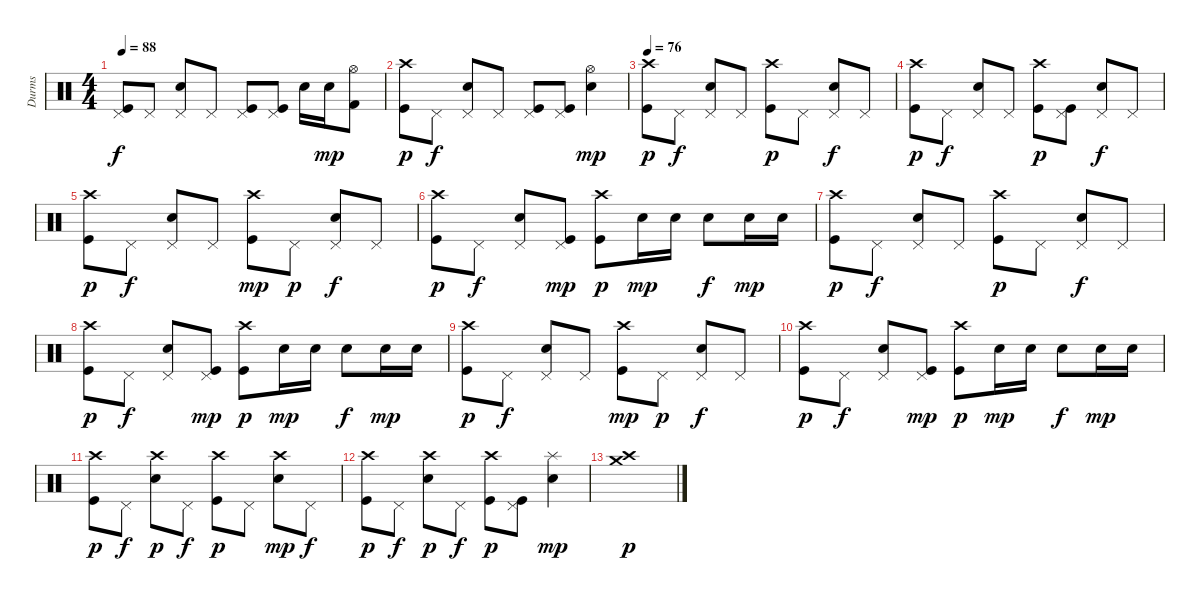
\track ("Durms" "Durms") {instrument percussion}
\staff {score}
\articulation defaults
\ts (4 4)
\tempo 88
\clef neutral
\ks c
("Pedal Hi-Hat (hit)" "Kick (hit)").8{dy f} "Pedal Hi-Hat (hit)".8 ("Pedal Hi-Hat (hit)" "Snare (hit) 2").8 "Pedal Hi-Hat (hit)".8 ("Pedal Hi-Hat (hit)" "Kick (hit)").8 ("Pedal Hi-Hat (hit)" "Kick (hit)").8 "Snare (hit) 2".16 "Snare (hit) 2".16{dy mp} ("Hi-Hat (open)" "Kick (hit) 2").8 |
("Crash high (hit)" "Kick (hit)").8{dy p} "Pedal Hi-Hat (hit)".8{dy f} ("Pedal Hi-Hat (hit)" "Snare (hit) 2").8 "Pedal Hi-Hat (hit)".8 ("Pedal Hi-Hat (hit)" "Kick (hit)").8 ("Pedal Hi-Hat (hit)" "Kick (hit)").8 ("Hi-Hat (open)" "Snare (hit) 2").4{dy mp} |
\tempo 76
("Crash high (hit)" "Kick (hit)").8{dy p} "Pedal Hi-Hat (hit)".8{dy f} ("Pedal Hi-Hat (hit)" "Snare (hit) 2").8 "Pedal Hi-Hat (hit)".8 ("Crash high (hit)" "Kick (hit)").8{dy p} "Pedal Hi-Hat (hit)".8 ("Pedal Hi-Hat (hit)" "Snare (hit) 2").8{dy f} "Pedal Hi-Hat (hit)".8 |
("Crash high (hit)" "Kick (hit)").8{dy p} "Pedal Hi-Hat (hit)".8{dy f} ("Pedal Hi-Hat (hit)" "Snare (hit) 2").8 "Pedal Hi-Hat (hit)".8 ("Crash high (hit)" "Kick (hit)").8{dy p} ("Pedal Hi-Hat (hit)" "Kick (hit)").8 ("Pedal Hi-Hat (hit)" "Snare (hit) 2").8{dy f} "Pedal Hi-Hat (hit)".8 |
("Crash high (hit)" "Kick (hit)").8{dy p} "Pedal Hi-Hat (hit)".8{dy f} ("Pedal Hi-Hat (hit)" "Snare (hit) 2").8 "Pedal Hi-Hat (hit)".8 ("Crash high (hit)" "Kick (hit)").8{dy mp} "Pedal Hi-Hat (hit)".8{dy p} ("Pedal Hi-Hat (hit)" "Snare (hit) 2").8{dy f} "Pedal Hi-Hat (hit)".8 |
("Crash high (hit)" "Kick (hit)").8{dy p} "Pedal Hi-Hat (hit)".8{dy f} ("Pedal Hi-Hat (hit)" "Snare (hit) 2").8 ("Pedal Hi-Hat (hit)" "Kick (hit)").8{dy mp} ("Crash high (hit)" "Kick (hit)").8{dy p} "Snare (hit) 2".16{dy mp} "Snare (hit) 2".16 "Snare (hit) 2".8{dy f} "Snare (hit) 2".16{dy mp} "Snare (hit) 2".16 |
("Crash high (hit)" "Kick (hit)").8{dy p} "Pedal Hi-Hat (hit)".8{dy f} ("Pedal Hi-Hat (hit)" "Snare (hit) 2").8 "Pedal Hi-Hat (hit)".8 ("Crash high (hit)" "Kick (hit)").8{dy p} "Pedal Hi-Hat (hit)".8 ("Pedal Hi-Hat (hit)" "Snare (hit) 2").8{dy f} "Pedal Hi-Hat (hit)".8 |
("Crash high (hit)" "Kick (hit)").8{dy p} "Pedal Hi-Hat (hit)".8{dy f} ("Pedal Hi-Hat (hit)" "Snare (hit) 2").8 ("Pedal Hi-Hat (hit)" "Kick (hit)").8{dy mp} ("Crash high (hit)" "Kick (hit)").8{dy p} "Snare (hit) 2".16{dy mp} "Snare (hit) 2".16 "Snare (hit) 2".8{dy f} "Snare (hit) 2".16{dy mp} "Snare (hit) 2".16 |
("Crash high (hit)" "Kick (hit)").8{dy p} "Pedal Hi-Hat (hit)".8{dy f} ("Pedal Hi-Hat (hit)" "Snare (hit) 2").8 "Pedal Hi-Hat (hit)".8 ("Crash high (hit)" "Kick (hit)").8{dy mp} "Pedal Hi-Hat (hit)".8{dy p} ("Pedal Hi-Hat (hit)" "Snare (hit) 2").8{dy f} "Pedal Hi-Hat (hit)".8 |
("Crash high (hit)" "Kick (hit)").8{dy p} "Pedal Hi-Hat (hit)".8{dy f} ("Pedal Hi-Hat (hit)" "Snare (hit) 2").8 ("Pedal Hi-Hat (hit)" "Kick (hit)").8{dy mp} ("Crash high (hit)" "Kick (hit)").8{dy p} "Snare (hit) 2".16{dy mp} "Snare (hit) 2".16 "Snare (hit) 2".8{dy f} "Snare (hit) 2".16{dy mp} "Snare (hit) 2".16 |
("Crash high (hit)" "Kick (hit)").8{dy p} "Pedal Hi-Hat (hit)".8{dy f} ("Crash high (hit)" "Snare (hit) 2").8{dy p} "Pedal Hi-Hat (hit)".8{dy f} ("Crash high (hit)" "Kick (hit)").8{dy p} "Pedal Hi-Hat (hit)".8 ("Crash high (hit)" "Snare (hit) 2").8{dy mp} "Pedal Hi-Hat (hit)".8{dy f} |
("Crash high (hit)" "Kick (hit)").8{dy p} "Pedal Hi-Hat (hit)".8{dy f} ("Crash high (hit)" "Snare (hit) 2").8{dy p} "Pedal Hi-Hat (hit)".8{dy f} ("Crash high (hit)" "Kick (hit)").8{dy p} ("Pedal Hi-Hat (hit)" "Kick (hit)").8 ("Splash (hit)" "Snare (hit) 2").4{dy mp} |
("Crash high (hit)" "Crash medium (hit)").1{dy p}
